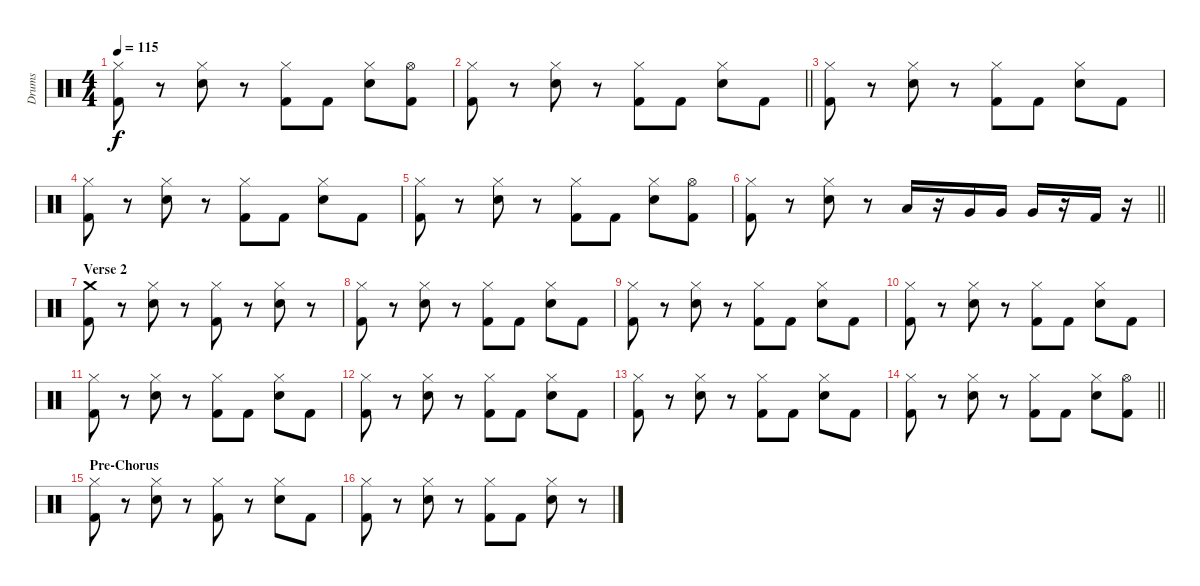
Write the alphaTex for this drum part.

\track ("Drums" "Drums") {instrument percussion}
\staff {score}
\articulation defaults
\ts (4 4)
\tempo 115
\clef neutral
\ks c
("Hi-Hat (closed)" "Kick (hit) 2").8{dy f} r.8 ("Hi-Hat (closed)" "Snare (hit) 2").8 r.8 ("Hi-Hat (closed)" "Kick (hit) 2").8 "Kick (hit) 2".8 ("Hi-Hat (closed)" "Snare (hit) 2").8 ("Hi-Hat (open)" "Kick (hit) 2").8 |
\barLineRight lightlight
("Hi-Hat (closed)" "Kick (hit) 2").8 r.8 ("Hi-Hat (closed)" "Snare (hit) 2").8 r.8 ("Hi-Hat (closed)" "Kick (hit) 2").8 "Kick (hit) 2".8 ("Hi-Hat (closed)" "Snare (hit) 2").8 "Kick (hit) 2".8 |
("Hi-Hat (closed)" "Kick (hit) 2").8 r.8 ("Hi-Hat (closed)" "Snare (hit) 2").8 r.8 ("Hi-Hat (closed)" "Kick (hit) 2").8 "Kick (hit) 2".8 ("Hi-Hat (closed)" "Snare (hit) 2").8 "Kick (hit) 2".8 |
("Hi-Hat (closed)" "Kick (hit) 2").8 r.8 ("Hi-Hat (closed)" "Snare (hit) 2").8 r.8 ("Hi-Hat (closed)" "Kick (hit) 2").8 "Kick (hit) 2".8 ("Hi-Hat (closed)" "Snare (hit) 2").8 "Kick (hit) 2".8 |
("Hi-Hat (closed)" "Kick (hit) 2").8 r.8 ("Hi-Hat (closed)" "Snare (hit) 2").8 r.8 ("Hi-Hat (closed)" "Kick (hit) 2").8 "Kick (hit) 2".8 ("Hi-Hat (closed)" "Snare (hit) 2").8 ("Hi-Hat (open)" "Kick (hit) 2").8 |
\barLineRight lightlight
("Hi-Hat (closed)" "Kick (hit) 2").8 r.8 ("Hi-Hat (closed)" "Snare (hit) 2").8 r.8 "Low Tom (hit)".16 r.16 "Very Low Tom (hit)".16 "Very Low Tom (hit)".16 "Very Low Tom (hit)".16 r.16 "Kick (hit) 2".16 r.16 |
\section ("" "Verse 2")
("Crash medium (hit)" "Kick (hit) 2").8 r.8 ("Hi-Hat (closed)" "Snare (hit) 2").8 r.8 ("Hi-Hat (closed)" "Kick (hit) 2").8 r.8 ("Hi-Hat (closed)" "Snare (hit) 2").8 r.8 |
("Hi-Hat (closed)" "Kick (hit) 2").8 r.8 ("Hi-Hat (closed)" "Snare (hit) 2").8 r.8 ("Hi-Hat (closed)" "Kick (hit) 2").8 "Kick (hit) 2".8 ("Hi-Hat (closed)" "Snare (hit) 2").8 "Kick (hit) 2".8 |
("Hi-Hat (closed)" "Kick (hit) 2").8 r.8 ("Hi-Hat (closed)" "Snare (hit) 2").8 r.8 ("Hi-Hat (closed)" "Kick (hit) 2").8 "Kick (hit) 2".8 ("Hi-Hat (closed)" "Snare (hit) 2").8 "Kick (hit) 2".8 |
("Hi-Hat (closed)" "Kick (hit) 2").8 r.8 ("Hi-Hat (closed)" "Snare (hit) 2").8 r.8 ("Hi-Hat (closed)" "Kick (hit) 2").8 "Kick (hit) 2".8 ("Hi-Hat (closed)" "Snare (hit) 2").8 "Kick (hit) 2".8 |
("Hi-Hat (closed)" "Kick (hit) 2").8 r.8 ("Hi-Hat (closed)" "Snare (hit) 2").8 r.8 ("Hi-Hat (closed)" "Kick (hit) 2").8 "Kick (hit) 2".8 ("Hi-Hat (closed)" "Snare (hit) 2").8 "Kick (hit) 2".8 |
("Hi-Hat (closed)" "Kick (hit) 2").8 r.8 ("Hi-Hat (closed)" "Snare (hit) 2").8 r.8 ("Hi-Hat (closed)" "Kick (hit) 2").8 "Kick (hit) 2".8 ("Hi-Hat (closed)" "Snare (hit) 2").8 "Kick (hit) 2".8 |
("Hi-Hat (closed)" "Kick (hit) 2").8 r.8 ("Hi-Hat (closed)" "Snare (hit) 2").8 r.8 ("Hi-Hat (closed)" "Kick (hit) 2").8 "Kick (hit) 2".8 ("Hi-Hat (closed)" "Snare (hit) 2").8 "Kick (hit) 2".8 |
\barLineRight lightlight
("Hi-Hat (closed)" "Kick (hit) 2").8 r.8 ("Hi-Hat (closed)" "Snare (hit) 2").8 r.8 ("Hi-Hat (closed)" "Kick (hit) 2").8 "Kick (hit) 2".8 ("Hi-Hat (closed)" "Snare (hit) 2").8 ("Hi-Hat (open)" "Kick (hit) 2").8 |
\section ("" "Pre-Chorus")
("Hi-Hat (closed)" "Kick (hit) 2").8 r.8 ("Hi-Hat (closed)" "Snare (hit) 2").8 r.8 ("Hi-Hat (closed)" "Kick (hit) 2").8 r.8 ("Hi-Hat (closed)" "Snare (hit) 2").8 "Kick (hit) 2".8 |
("Hi-Hat (closed)" "Kick (hit) 2").8 r.8 ("Hi-Hat (closed)" "Snare (hit) 2").8 r.8 ("Hi-Hat (closed)" "Kick (hit) 2").8 "Kick (hit) 2".8 ("Hi-Hat (closed)" "Snare (hit) 2").8 r.8
